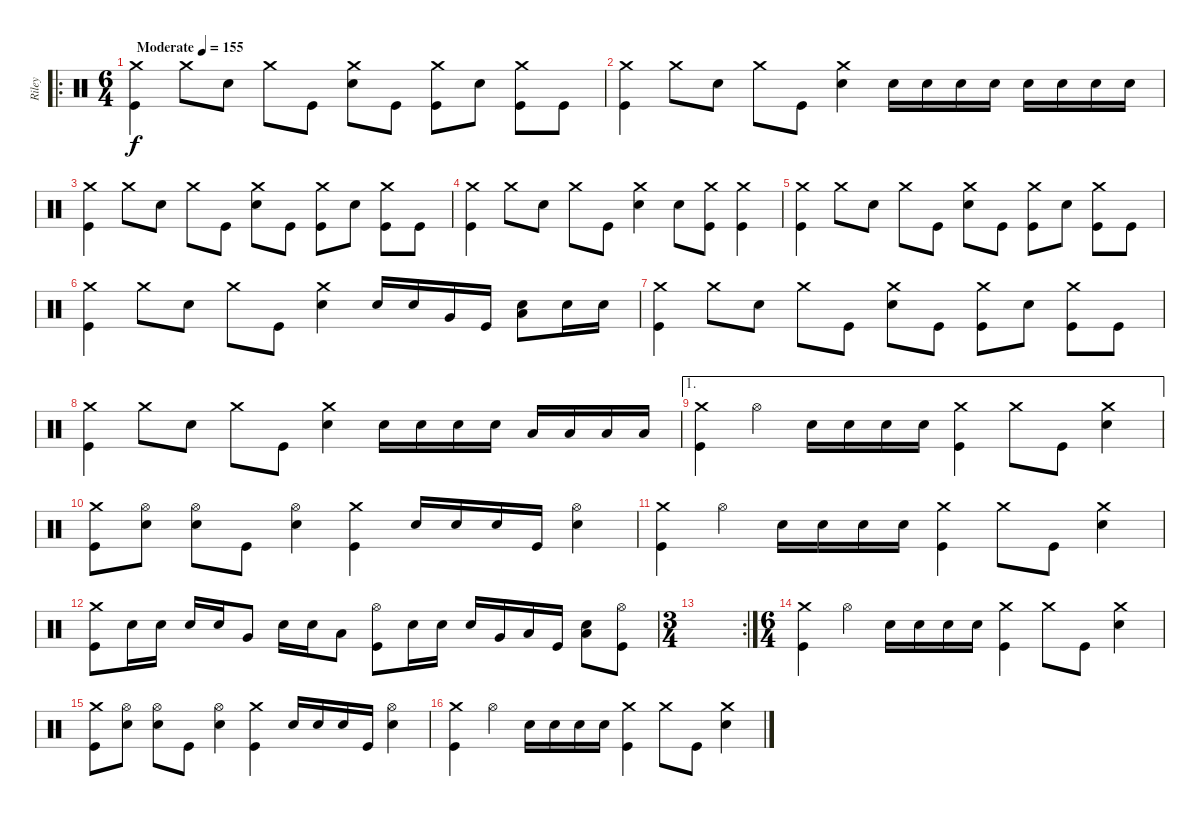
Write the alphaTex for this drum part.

\track ("Riley" "Riley") {instrument percussion bank 177}
\staff {score}
\articulation defaults
\ro
\ts (6 4)
\tempo (155 "Moderate")
\clef neutral
\ks c
("Crash medium (hit)" "Kick (hit)").4{dy f} "Crash medium (hit)".8 "Snare (hit) 2".8 "Crash medium (hit)".8 "Kick (hit)".8 ("Crash medium (hit)" "Snare (hit) 2").8 "Kick (hit)".8 ("Crash medium (hit)" "Kick (hit)").8 "Snare (hit) 2".8 ("Crash medium (hit)" "Kick (hit)").8 "Kick (hit)".8 |
("Crash medium (hit)" "Kick (hit)").4 "Crash medium (hit)".8 "Snare (hit) 2".8 "Crash medium (hit)".8 "Kick (hit)".8 ("Crash medium (hit)" "Snare (hit) 2").4 "Snare (hit) 2".16 "Snare (hit) 2".16 "Snare (hit) 2".16 "Snare (hit) 2".16 "Snare (hit) 2".16 "Snare (hit) 2".16 "Snare (hit) 2".16 "Snare (hit) 2".16 |
("Crash medium (hit)" "Kick (hit)").4 "Crash medium (hit)".8 "Snare (hit) 2".8 "Crash medium (hit)".8 "Kick (hit)".8 ("Crash medium (hit)" "Snare (hit) 2").8 "Kick (hit)".8 ("Crash medium (hit)" "Kick (hit)").8 "Snare (hit) 2".8 ("Crash medium (hit)" "Kick (hit)").8 "Kick (hit)".8 |
("Crash medium (hit)" "Kick (hit)").4 "Crash medium (hit)".8 "Snare (hit) 2".8 "Crash medium (hit)".8 "Kick (hit)".8 ("Crash medium (hit)" "Snare (hit) 2").4 "Snare (hit) 2".8 ("Crash medium (hit)" "Kick (hit)").8 ("Crash medium (hit)" "Kick (hit)").4 |
("Crash medium (hit)" "Kick (hit)").4 "Crash medium (hit)".8 "Snare (hit) 2".8 "Crash medium (hit)".8 "Kick (hit)".8 ("Crash medium (hit)" "Snare (hit) 2").8 "Kick (hit)".8 ("Crash medium (hit)" "Kick (hit)").8 "Snare (hit) 2".8 ("Crash medium (hit)" "Kick (hit)").8 "Kick (hit)".8 |
("Crash medium (hit)" "Kick (hit)").4 "Crash medium (hit)".8 "Snare (hit) 2".8 "Crash medium (hit)".8 "Kick (hit)".8 ("Crash medium (hit)" "Snare (hit) 2").4 "Snare (hit) 2".16 "Snare (hit) 2".16 "Very Low Tom (hit)".16 "Kick (hit)".16 ("Snare (hit) 2" "Low Floor Tom (hit)").8 "Snare (hit) 2".16 "Snare (hit) 2".16 |
("Crash medium (hit)" "Kick (hit)").4 "Crash medium (hit)".8 "Snare (hit) 2".8 "Crash medium (hit)".8 "Kick (hit)".8 ("Crash medium (hit)" "Snare (hit) 2").8 "Kick (hit)".8 ("Crash medium (hit)" "Kick (hit)").8 "Snare (hit) 2".8 ("Crash medium (hit)" "Kick (hit)").8 "Kick (hit)".8 |
("Crash medium (hit)" "Kick (hit)").4 "Crash medium (hit)".8 "Snare (hit) 2".8 "Crash medium (hit)".8 "Kick (hit)".8 ("Crash medium (hit)" "Snare (hit) 2").4 "Snare (hit) 2".16 "Snare (hit) 2".16 "Snare (hit) 2".16 "Snare (hit) 2".16 "Low Tom (hit)".16 "Low Tom (hit)".16 "Low Floor Tom (hit)".16 "Low Floor Tom (hit)".16 |
\ae 1
("Crash medium (hit)" "Kick (hit)").4 "Hi-Hat (open)".4 "Snare (hit) 2".16 "Snare (hit) 2".16 "Snare (hit) 2".16 "Snare (hit) 2".16 ("Crash medium (hit)" "Kick (hit)").4 "Crash medium (hit)".8 "Kick (hit)".8 ("Crash medium (hit)" "Snare (hit) 2").4 |
("Crash medium (hit)" "Kick (hit)").8 ("Hi-Hat (open)" "Snare (hit) 2").8 ("Hi-Hat (open)" "Snare (hit) 2").8 "Kick (hit)".8 ("Hi-Hat (open)" "Snare (hit) 2").4 ("Crash medium (hit)" "Kick (hit)").4 "Snare (hit) 2".16 "Snare (hit) 2".16 "Snare (hit) 2".16 "Kick (hit)".16 ("Hi-Hat (open)" "Snare (hit) 2").4 |
("Crash medium (hit)" "Kick (hit)").4 "Hi-Hat (open)".4 "Snare (hit) 2".16 "Snare (hit) 2".16 "Snare (hit) 2".16 "Snare (hit) 2".16 ("Crash medium (hit)" "Kick (hit)").4 "Crash medium (hit)".8 "Kick (hit)".8 ("Crash medium (hit)" "Snare (hit) 2").4 |
("Crash medium (hit)" "Kick (hit)").8 "Snare (hit) 2".16 "Snare (hit) 2".16 "Snare (hit) 2".16 "Snare (hit) 2".16 "Very Low Tom (hit)".8 "Snare (hit) 2".16 "Snare (hit) 2".16 "Low Floor Tom (hit)".8 ("Hi-Hat (open)" "Kick (hit)").8 "Snare (hit) 2".16 "Snare (hit) 2".16 "Snare (hit) 2".16 "Very Low Tom (hit)".16 "Low Floor Tom (hit)".16 "Kick (hit)".16 ("Low Floor Tom (hit)" "Snare (hit) 2").8 ("Hi-Hat (open)" "Kick (hit)").8 |
\rc 2
\ts (3 4)
|
\ts (6 4)
("Crash medium (hit)" "Kick (hit)").4 "Hi-Hat (open)".4 "Snare (hit) 2".16 "Snare (hit) 2".16 "Snare (hit) 2".16 "Snare (hit) 2".16 ("Crash medium (hit)" "Kick (hit)").4 "Crash medium (hit)".8 "Kick (hit)".8 ("Crash medium (hit)" "Snare (hit) 2").4 |
("Crash medium (hit)" "Kick (hit)").8 ("Hi-Hat (open)" "Snare (hit) 2").8 ("Hi-Hat (open)" "Snare (hit) 2").8 "Kick (hit)".8 ("Hi-Hat (open)" "Snare (hit) 2").4 ("Crash medium (hit)" "Kick (hit)").4 "Snare (hit) 2".16 "Snare (hit) 2".16 "Snare (hit) 2".16 "Kick (hit)".16 ("Hi-Hat (open)" "Snare (hit) 2").4 |
("Crash medium (hit)" "Kick (hit)").4 "Hi-Hat (open)".4 "Snare (hit) 2".16 "Snare (hit) 2".16 "Snare (hit) 2".16 "Snare (hit) 2".16 ("Crash medium (hit)" "Kick (hit)").4 "Crash medium (hit)".8 "Kick (hit)".8 ("Crash medium (hit)" "Snare (hit) 2").4
